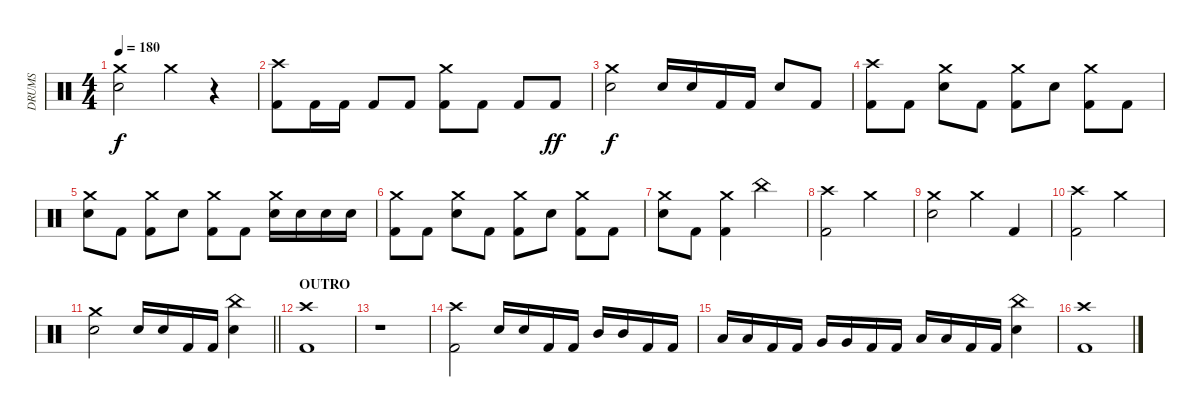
\track ("DRUMS" "DRUMS") {instrument percussion}
\staff {score}
\articulation defaults
\ts (4 4)
\tempo 180
\clef neutral
\ks c
("Crash medium (hit)" "Electric Snare (hit)").2{dy f} "Crash medium (hit)".4 r.4 |
("Crash high (hit)" "Kick (hit) 2").8 "Kick (hit) 2".16 "Kick (hit) 2".16 "Kick (hit) 2".8 "Kick (hit) 2".8 ("Crash medium (hit)" "Kick (hit) 2").8 "Kick (hit) 2".8 "Kick (hit) 2".8 "Kick (hit) 2".8{dy ff} |
("Crash medium (hit)" "Electric Snare (hit)").2{dy f} "Electric Snare (hit)".16 "Electric Snare (hit)".16 "Kick (hit) 2".16 "Kick (hit) 2".16 "Electric Snare (hit)".8 "Kick (hit) 2".8 |
("Crash high (hit)" "Kick (hit) 2").8 "Kick (hit) 2".8 ("Crash medium (hit)" "Electric Snare (hit)").8 "Kick (hit) 2".8 ("Crash medium (hit)" "Kick (hit) 2").8 "Electric Snare (hit)".8 ("Crash medium (hit)" "Kick (hit) 2").8 "Kick (hit) 2".8 |
("Crash medium (hit)" "Electric Snare (hit)").8 "Kick (hit) 2".8 ("Crash medium (hit)" "Kick (hit) 2").8 "Electric Snare (hit)".8 ("Crash medium (hit)" "Kick (hit) 2").8 "Kick (hit) 2".8 ("Crash medium (hit)" "Electric Snare (hit)").16 "Electric Snare (hit)".16 "Electric Snare (hit)".16 "Electric Snare (hit)".16 |
("Crash medium (hit)" "Kick (hit) 2").8 "Kick (hit) 2".8 ("Crash medium (hit)" "Electric Snare (hit)").8 "Kick (hit) 2".8 ("Crash medium (hit)" "Kick (hit) 2").8 "Electric Snare (hit)".8 ("Crash medium (hit)" "Kick (hit) 2").8 "Kick (hit) 2".8 |
("Crash medium (hit)" "Electric Snare (hit)").8 "Kick (hit) 2".8 ("Crash medium (hit)" "Kick (hit) 2").4 "China (hit)".2 |
("Crash high (hit)" "Kick (hit) 2").2 "Crash medium (hit)".2 |
("Crash medium (hit)" "Electric Snare (hit)").2 "Crash medium (hit)".4 "Kick (hit) 2".4 |
("Crash high (hit)" "Kick (hit) 2").2 "Crash medium (hit)".2 |
\barLineRight lightlight
("Crash medium (hit)" "Electric Snare (hit)").2 "Electric Snare (hit)".16 "Electric Snare (hit)".16 "Kick (hit) 2".16 "Kick (hit) 2".16 ("China (hit)" "Electric Snare (hit)").4 |
\section ("" "OUTRO")
("Crash high (hit)" "Kick (hit) 2").1 |
r.1 |
("Crash high (hit)" "Kick (hit) 2").2 "Electric Snare (hit)".16 "Electric Snare (hit)".16 "Kick (hit) 2".16 "Kick (hit) 2".16 "Mid Tom (hit)".16 "Mid Tom (hit)".16 "Kick (hit) 2".16 "Kick (hit) 2".16 |
"Low Tom (hit)".16 "Low Tom (hit)".16 "Kick (hit) 2".16 "Kick (hit) 2".16 "Very Low Tom (hit)".16 "Very Low Tom (hit)".16 "Kick (hit) 2".16 "Kick (hit) 2".16 "Low Floor Tom (hit)".16 "Low Floor Tom (hit)".16 "Kick (hit) 2".16 "Kick (hit) 2".16 ("China (hit)" "Electric Snare (hit)").4 |
("Crash high (hit)" "Kick (hit) 2").1
